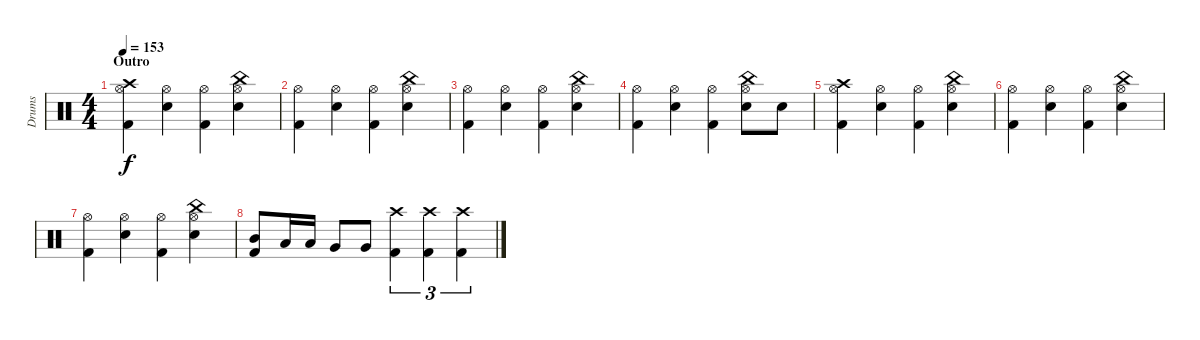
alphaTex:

\track ("Drums" "Drums") {instrument percussion}
\staff {score}
\articulation defaults
\ts (4 4)
\section ("" "Outro")
\tempo 153
\clef neutral
\ks c
("Crash high (hit)" "Hi-Hat (open)" "Kick (hit) 2").4{dy f} ("Hi-Hat (open)" "Electric Snare (hit)").4 ("Hi-Hat (open)" "Kick (hit) 2").4 ("China (hit)" "Hi-Hat (open)" "Electric Snare (hit)").4 |
("Hi-Hat (open)" "Kick (hit) 2").4 ("Hi-Hat (open)" "Electric Snare (hit)").4 ("Hi-Hat (open)" "Kick (hit) 2").4 ("China (hit)" "Hi-Hat (open)" "Electric Snare (hit)").4 |
("Hi-Hat (open)" "Kick (hit) 2").4 ("Hi-Hat (open)" "Electric Snare (hit)").4 ("Hi-Hat (open)" "Kick (hit) 2").4 ("China (hit)" "Hi-Hat (open)" "Electric Snare (hit)").4 |
("Hi-Hat (open)" "Kick (hit) 2").4 ("Hi-Hat (open)" "Electric Snare (hit)").4 ("Hi-Hat (open)" "Kick (hit) 2").4 ("China (hit)" "Hi-Hat (open)" "Electric Snare (hit)").8 "Electric Snare (hit)".8 |
("Crash high (hit)" "Hi-Hat (open)" "Kick (hit) 2").4 ("Hi-Hat (open)" "Electric Snare (hit)").4 ("Hi-Hat (open)" "Kick (hit) 2").4 ("China (hit)" "Hi-Hat (open)" "Electric Snare (hit)").4 |
("Hi-Hat (open)" "Kick (hit) 2").4 ("Hi-Hat (open)" "Electric Snare (hit)").4 ("Hi-Hat (open)" "Kick (hit) 2").4 ("China (hit)" "Hi-Hat (open)" "Electric Snare (hit)").4 |
("Hi-Hat (open)" "Kick (hit) 2").4 ("Hi-Hat (open)" "Electric Snare (hit)").4 ("Hi-Hat (open)" "Kick (hit) 2").4 ("China (hit)" "Hi-Hat (open)" "Electric Snare (hit)").4 |
("Mid Tom (hit)" "Kick (hit) 2").8 "Low Tom (hit)".16 "Low Tom (hit)".16 "Very Low Tom (hit)".8 "Very Low Tom (hit)".8 ("Crash high (hit)" "Kick (hit) 2").4{tu (3 2)} ("Crash high (hit)" "Kick (hit) 2").4{tu (3 2)} ("Crash high (hit)" "Kick (hit) 2").4{tu (3 2)}
